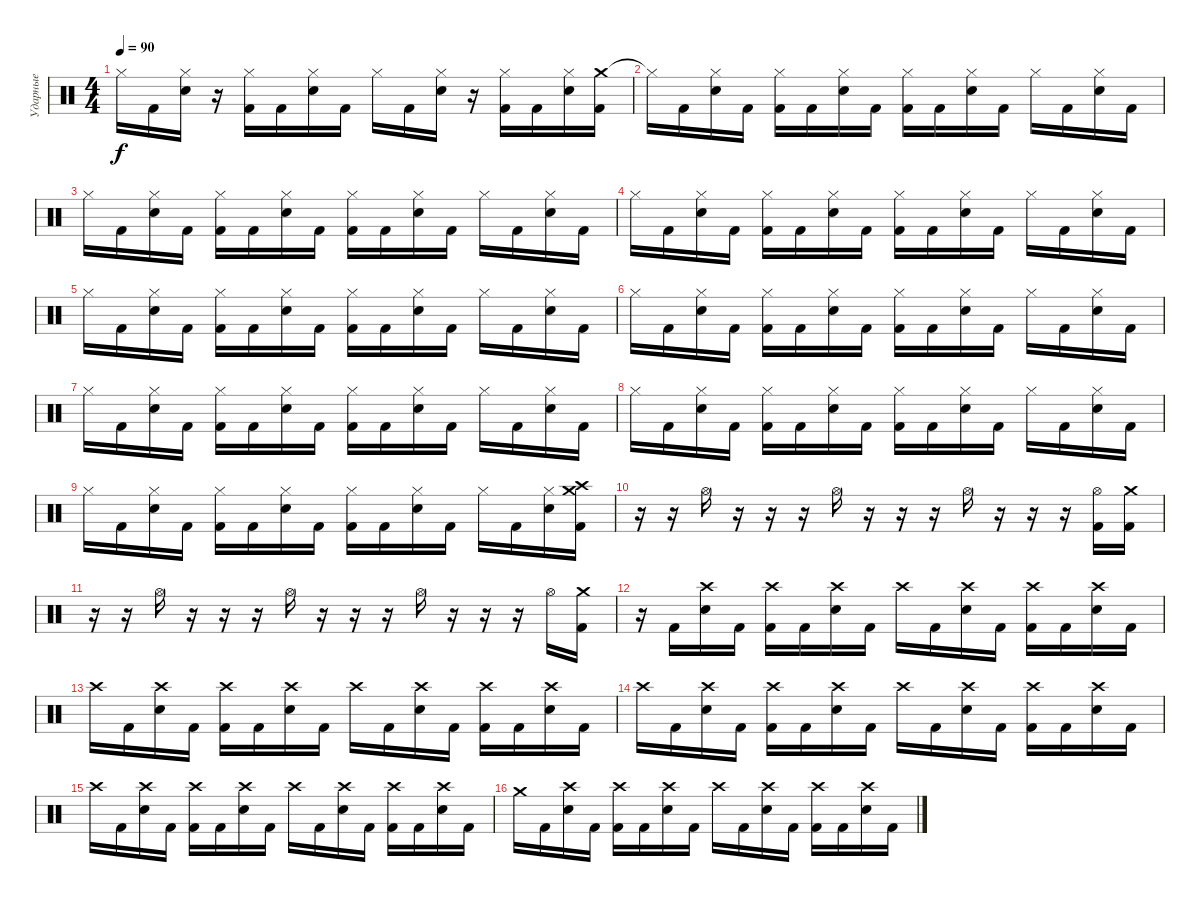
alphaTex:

\track ("Ударные" "Ударные") {instrument percussion}
\staff {score}
\articulation defaults
\ts (4 4)
\tempo 90
\clef neutral
\ks c "Hi-Hat (closed)".16{dy f} "Kick (hit) 2".16
("Hi-Hat (closed)" "Electric Snare (hit)").16 r.16 ("Hi-Hat (closed)" "Kick (hit) 2").16 "Kick (hit) 2".16 ("Hi-Hat (closed)" "Electric Snare (hit)").16 "Kick (hit) 2".16 "Hi-Hat (closed)".16 "Kick (hit) 2".16 ("Hi-Hat (closed)" "Electric Snare (hit)").16 r.16 ("Hi-Hat (closed)" "Kick (hit) 2").16 "Kick (hit) 2".16 ("Hi-Hat (closed)" "Electric Snare (hit)").16 ("Crash medium (hit)" "Kick (hit) 2").16 |
"Hi-Hat (closed)"{t}.16 "Kick (hit) 2".16 ("Hi-Hat (closed)" "Electric Snare (hit)").16 "Kick (hit) 2".16 ("Hi-Hat (closed)" "Kick (hit) 2").16 "Kick (hit) 2".16 ("Hi-Hat (closed)" "Electric Snare (hit)").16 "Kick (hit) 2".16 ("Hi-Hat (closed)" "Kick (hit) 2").16 "Kick (hit) 2".16 ("Hi-Hat (closed)" "Electric Snare (hit)").16 "Kick (hit) 2".16 "Hi-Hat (closed)".16 "Kick (hit) 2".16 ("Hi-Hat (closed)" "Electric Snare (hit)").16 "Kick (hit) 2".16 |
"Hi-Hat (closed)".16 "Kick (hit) 2".16 ("Hi-Hat (closed)" "Electric Snare (hit)").16 "Kick (hit) 2".16 ("Hi-Hat (closed)" "Kick (hit) 2").16 "Kick (hit) 2".16 ("Hi-Hat (closed)" "Electric Snare (hit)").16 "Kick (hit) 2".16 ("Hi-Hat (closed)" "Kick (hit) 2").16 "Kick (hit) 2".16 ("Hi-Hat (closed)" "Electric Snare (hit)").16 "Kick (hit) 2".16 "Hi-Hat (closed)".16 "Kick (hit) 2".16 ("Hi-Hat (closed)" "Electric Snare (hit)").16 "Kick (hit) 2".16 |
"Hi-Hat (closed)".16 "Kick (hit) 2".16 ("Hi-Hat (closed)" "Electric Snare (hit)").16 "Kick (hit) 2".16 ("Hi-Hat (closed)" "Kick (hit) 2").16 "Kick (hit) 2".16 ("Hi-Hat (closed)" "Electric Snare (hit)").16 "Kick (hit) 2".16 ("Hi-Hat (closed)" "Kick (hit) 2").16 "Kick (hit) 2".16 ("Hi-Hat (closed)" "Electric Snare (hit)").16 "Kick (hit) 2".16 "Hi-Hat (closed)".16 "Kick (hit) 2".16 ("Hi-Hat (closed)" "Electric Snare (hit)").16 "Kick (hit) 2".16 |
"Hi-Hat (closed)".16 "Kick (hit) 2".16 ("Hi-Hat (closed)" "Electric Snare (hit)").16 "Kick (hit) 2".16 ("Hi-Hat (closed)" "Kick (hit) 2").16 "Kick (hit) 2".16 ("Hi-Hat (closed)" "Electric Snare (hit)").16 "Kick (hit) 2".16 ("Hi-Hat (closed)" "Kick (hit) 2").16 "Kick (hit) 2".16 ("Hi-Hat (closed)" "Electric Snare (hit)").16 "Kick (hit) 2".16 "Hi-Hat (closed)".16 "Kick (hit) 2".16 ("Hi-Hat (closed)" "Electric Snare (hit)").16 "Kick (hit) 2".16 |
"Hi-Hat (closed)".16 "Kick (hit) 2".16 ("Hi-Hat (closed)" "Electric Snare (hit)").16 "Kick (hit) 2".16 ("Hi-Hat (closed)" "Kick (hit) 2").16 "Kick (hit) 2".16 ("Hi-Hat (closed)" "Electric Snare (hit)").16 "Kick (hit) 2".16 ("Hi-Hat (closed)" "Kick (hit) 2").16 "Kick (hit) 2".16 ("Hi-Hat (closed)" "Electric Snare (hit)").16 "Kick (hit) 2".16 "Hi-Hat (closed)".16 "Kick (hit) 2".16 ("Hi-Hat (closed)" "Electric Snare (hit)").16 "Kick (hit) 2".16 |
"Hi-Hat (closed)".16 "Kick (hit) 2".16 ("Hi-Hat (closed)" "Electric Snare (hit)").16 "Kick (hit) 2".16 ("Hi-Hat (closed)" "Kick (hit) 2").16 "Kick (hit) 2".16 ("Hi-Hat (closed)" "Electric Snare (hit)").16 "Kick (hit) 2".16 ("Hi-Hat (closed)" "Kick (hit) 2").16 "Kick (hit) 2".16 ("Hi-Hat (closed)" "Electric Snare (hit)").16 "Kick (hit) 2".16 "Hi-Hat (closed)".16 "Kick (hit) 2".16 ("Hi-Hat (closed)" "Electric Snare (hit)").16 "Kick (hit) 2".16 |
"Hi-Hat (closed)".16 "Kick (hit) 2".16 ("Hi-Hat (closed)" "Electric Snare (hit)").16 "Kick (hit) 2".16 ("Hi-Hat (closed)" "Kick (hit) 2").16 "Kick (hit) 2".16 ("Hi-Hat (closed)" "Electric Snare (hit)").16 "Kick (hit) 2".16 ("Hi-Hat (closed)" "Kick (hit) 2").16 "Kick (hit) 2".16 ("Hi-Hat (closed)" "Electric Snare (hit)").16 "Kick (hit) 2".16 "Hi-Hat (closed)".16 "Kick (hit) 2".16 ("Hi-Hat (closed)" "Electric Snare (hit)").16 "Kick (hit) 2".16 |
"Hi-Hat (closed)".16 "Kick (hit) 2".16 ("Hi-Hat (closed)" "Electric Snare (hit)").16 "Kick (hit) 2".16 ("Hi-Hat (closed)" "Kick (hit) 2").16 "Kick (hit) 2".16 ("Hi-Hat (closed)" "Electric Snare (hit)").16 "Kick (hit) 2".16 ("Hi-Hat (closed)" "Kick (hit) 2").16 "Kick (hit) 2".16 ("Hi-Hat (closed)" "Electric Snare (hit)").16 "Kick (hit) 2".16 "Hi-Hat (closed)".16 "Kick (hit) 2".16 ("Hi-Hat (closed)" "Electric Snare (hit)").16 ("Crash medium (hit)" "Crash high (hit)" "Kick (hit) 2").16 |
r.16 r.16 "Hi-Hat (open)".16 r.16 r.16 r.16 "Hi-Hat (open)".16 r.16 r.16 r.16 "Hi-Hat (open)".16 r.16 r.16 r.16 ("Hi-Hat (open)" "Kick (hit) 2").16 ("Crash medium (hit)" "Kick (hit) 2").16 |
r.16 r.16 "Hi-Hat (open)".16 r.16 r.16 r.16 "Hi-Hat (open)".16 r.16 r.16 r.16 "Hi-Hat (open)".16 r.16 r.16 r.16 "Hi-Hat (open)".16 ("Crash medium (hit)" "Kick (hit) 2").16 |
r.16 "Kick (hit) 2".16 ("Crash high (hit)" "Electric Snare (hit)").16 "Kick (hit) 2".16 ("Crash high (hit)" "Kick (hit) 2").16 "Kick (hit) 2".16 ("Crash high (hit)" "Electric Snare (hit)").16 "Kick (hit) 2".16 "Crash high (hit)".16 "Kick (hit) 2".16 ("Crash high (hit)" "Electric Snare (hit)").16 "Kick (hit) 2".16 ("Crash high (hit)" "Kick (hit) 2").16 "Kick (hit) 2".16 ("Crash high (hit)" "Electric Snare (hit)").16 "Kick (hit) 2".16 |
"Crash high (hit)".16 "Kick (hit) 2".16 ("Crash high (hit)" "Electric Snare (hit)").16 "Kick (hit) 2".16 ("Crash high (hit)" "Kick (hit) 2").16 "Kick (hit) 2".16 ("Crash high (hit)" "Electric Snare (hit)").16 "Kick (hit) 2".16 "Crash high (hit)".16 "Kick (hit) 2".16 ("Crash high (hit)" "Electric Snare (hit)").16 "Kick (hit) 2".16 ("Crash high (hit)" "Kick (hit) 2").16 "Kick (hit) 2".16 ("Crash high (hit)" "Electric Snare (hit)").16 "Kick (hit) 2".16 |
"Crash high (hit)".16 "Kick (hit) 2".16 ("Crash high (hit)" "Electric Snare (hit)").16 "Kick (hit) 2".16 ("Crash high (hit)" "Kick (hit) 2").16 "Kick (hit) 2".16 ("Crash high (hit)" "Electric Snare (hit)").16 "Kick (hit) 2".16 "Crash high (hit)".16 "Kick (hit) 2".16 ("Crash high (hit)" "Electric Snare (hit)").16 "Kick (hit) 2".16 ("Crash high (hit)" "Kick (hit) 2").16 "Kick (hit) 2".16 ("Crash high (hit)" "Electric Snare (hit)").16 "Kick (hit) 2".16 |
"Crash high (hit)".16 "Kick (hit) 2".16 ("Crash high (hit)" "Electric Snare (hit)").16 "Kick (hit) 2".16 ("Crash high (hit)" "Kick (hit) 2").16 "Kick (hit) 2".16 ("Crash high (hit)" "Electric Snare (hit)").16 "Kick (hit) 2".16 "Crash high (hit)".16 "Kick (hit) 2".16 ("Crash high (hit)" "Electric Snare (hit)").16 "Kick (hit) 2".16 ("Crash high (hit)" "Kick (hit) 2").16 "Kick (hit) 2".16 ("Crash high (hit)" "Electric Snare (hit)").16 "Kick (hit) 2".16 |
"Crash medium (hit)".16 "Kick (hit) 2".16 ("Crash high (hit)" "Electric Snare (hit)").16 "Kick (hit) 2".16 ("Crash high (hit)" "Kick (hit) 2").16 "Kick (hit) 2".16 ("Crash high (hit)" "Electric Snare (hit)").16 "Kick (hit) 2".16 "Crash high (hit)".16 "Kick (hit) 2".16 ("Crash high (hit)" "Electric Snare (hit)").16 "Kick (hit) 2".16 ("Crash high (hit)" "Kick (hit) 2").16 "Kick (hit) 2".16 ("Crash high (hit)" "Electric Snare (hit)").16 "Kick (hit) 2".16
